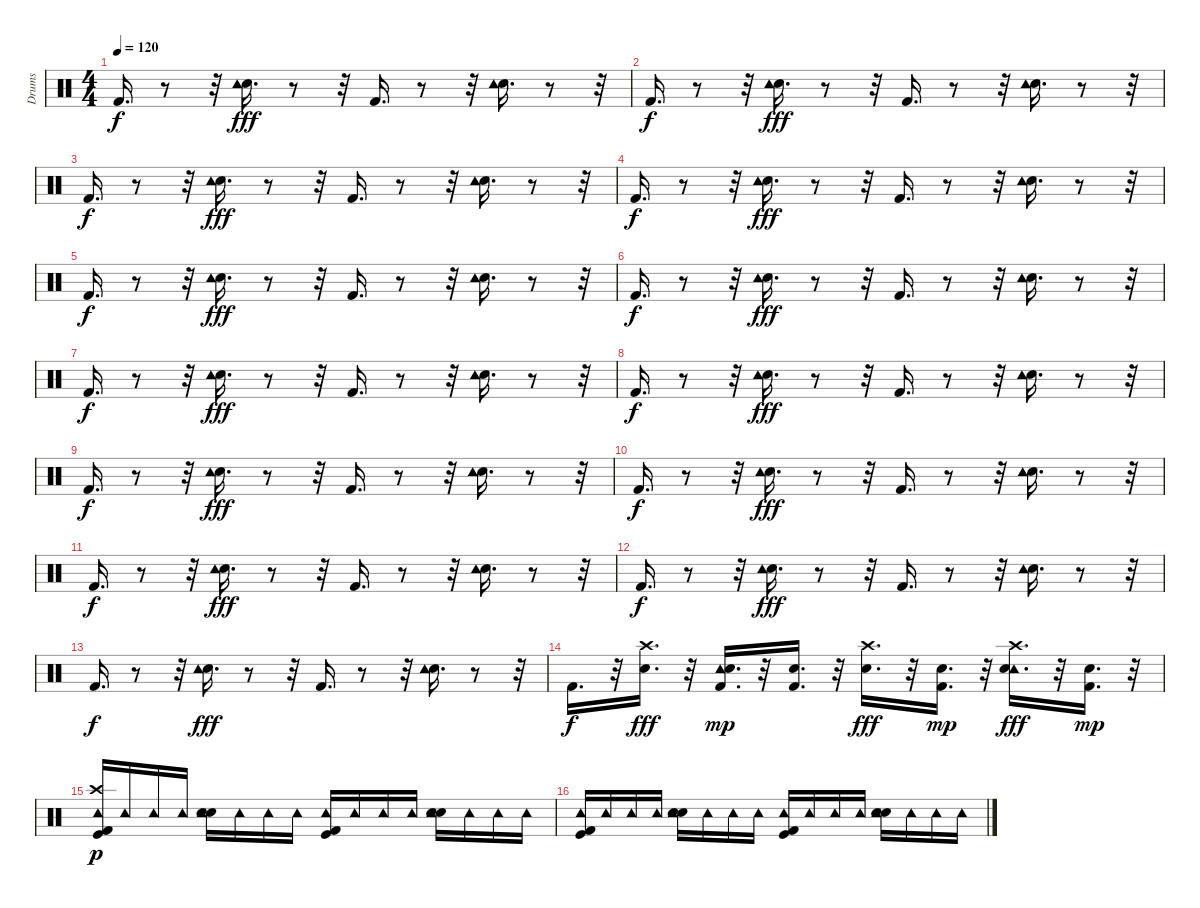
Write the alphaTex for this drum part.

\track ("Drums" "Drums") {instrument percussion}
\staff {score}
\articulation defaults
\ts (4 4)
\tempo 120
\clef neutral
\ks c "Kick (hit) 2".16{d dy f}
r.8 r.32 ("Snare (hit) 2" "Tambourine (hit)").16{d dy fff} r.8 r.32 "Kick (hit) 2".16{d} r.8 r.32 ("Snare (hit) 2" "Tambourine (hit)").16{d} r.8 r.32 |
"Kick (hit) 2".16{d dy f} r.8 r.32 ("Snare (hit) 2" "Tambourine (hit)").16{d dy fff} r.8 r.32 "Kick (hit) 2".16{d} r.8 r.32 ("Snare (hit) 2" "Tambourine (hit)").16{d} r.8 r.32 |
"Kick (hit) 2".16{d dy f} r.8 r.32 ("Snare (hit) 2" "Tambourine (hit)").16{d dy fff} r.8 r.32 "Kick (hit) 2".16{d} r.8 r.32 ("Snare (hit) 2" "Tambourine (hit)").16{d} r.8 r.32 |
"Kick (hit) 2".16{d dy f} r.8 r.32 ("Snare (hit) 2" "Tambourine (hit)").16{d dy fff} r.8 r.32 "Kick (hit) 2".16{d} r.8 r.32 ("Snare (hit) 2" "Tambourine (hit)").16{d} r.8 r.32 |
"Kick (hit) 2".16{d dy f} r.8 r.32 ("Snare (hit) 2" "Tambourine (hit)").16{d dy fff} r.8 r.32 "Kick (hit) 2".16{d} r.8 r.32 ("Snare (hit) 2" "Tambourine (hit)").16{d} r.8 r.32 |
"Kick (hit) 2".16{d dy f} r.8 r.32 ("Snare (hit) 2" "Tambourine (hit)").16{d dy fff} r.8 r.32 "Kick (hit) 2".16{d} r.8 r.32 ("Snare (hit) 2" "Tambourine (hit)").16{d} r.8 r.32 |
"Kick (hit) 2".16{d dy f} r.8 r.32 ("Snare (hit) 2" "Tambourine (hit)").16{d dy fff} r.8 r.32 "Kick (hit) 2".16{d} r.8 r.32 ("Snare (hit) 2" "Tambourine (hit)").16{d} r.8 r.32 |
"Kick (hit) 2".16{d dy f} r.8 r.32 ("Snare (hit) 2" "Tambourine (hit)").16{d dy fff} r.8 r.32 "Kick (hit) 2".16{d} r.8 r.32 ("Snare (hit) 2" "Tambourine (hit)").16{d} r.8 r.32 |
"Kick (hit) 2".16{d dy f} r.8 r.32 ("Snare (hit) 2" "Tambourine (hit)").16{d dy fff} r.8 r.32 "Kick (hit) 2".16{d} r.8 r.32 ("Snare (hit) 2" "Tambourine (hit)").16{d} r.8 r.32 |
"Kick (hit) 2".16{d dy f} r.8 r.32 ("Snare (hit) 2" "Tambourine (hit)").16{d dy fff} r.8 r.32 "Kick (hit) 2".16{d} r.8 r.32 ("Snare (hit) 2" "Tambourine (hit)").16{d} r.8 r.32 |
"Kick (hit) 2".16{d dy f} r.8 r.32 ("Snare (hit) 2" "Tambourine (hit)").16{d dy fff} r.8 r.32 "Kick (hit) 2".16{d} r.8 r.32 ("Snare (hit) 2" "Tambourine (hit)").16{d} r.8 r.32 |
"Kick (hit) 2".16{d dy f} r.8 r.32 ("Snare (hit) 2" "Tambourine (hit)").16{d dy fff} r.8 r.32 "Kick (hit) 2".16{d} r.8 r.32 ("Snare (hit) 2" "Tambourine (hit)").16{d} r.8 r.32 |
"Kick (hit) 2".16{d dy f} r.8 r.32 ("Snare (hit) 2" "Tambourine (hit)").16{d dy fff} r.8 r.32 "Kick (hit) 2".16{d} r.8 r.32 ("Snare (hit) 2" "Tambourine (hit)").16{d} r.8 r.32 |
"Kick (hit) 2".16{d dy f} r.32 ("Crash high (hit)" "Snare (hit) 2").16{d dy fff} r.32 ("Tambourine (hit)" "Kick (hit) 2" "Electric Snare (hit)").16{d dy mp} r.32 ("Kick (hit) 2" "Electric Snare (hit)").16{d} r.32 ("Crash high (hit)" "Snare (hit) 2").16{d dy fff} r.32 ("Kick (hit) 2" "Electric Snare (hit)").16{d dy mp} r.32 ("Tambourine (hit)" "Crash high (hit)" "Snare (hit) 2").16{d dy fff} r.32 ("Kick (hit) 2" "Electric Snare (hit)").16{d dy mp} r.32 |
("Kick (hit) 2" "Tambourine (hit)" "Crash high (hit)" "Kick (hit)").16{dy p} "Tambourine (hit)".16 "Tambourine (hit)".16 "Tambourine (hit)".16 ("Snare (hit) 2" "Tambourine (hit)" "Electric Snare (hit)").16 "Tambourine (hit)".16 "Tambourine (hit)".16 "Tambourine (hit)".16 ("Kick (hit) 2" "Tambourine (hit)" "Kick (hit)").16 "Tambourine (hit)".16 "Tambourine (hit)".16 "Tambourine (hit)".16 ("Snare (hit) 2" "Tambourine (hit)" "Electric Snare (hit)").16 "Tambourine (hit)".16 "Tambourine (hit)".16 "Tambourine (hit)".16 |
("Kick (hit) 2" "Tambourine (hit)" "Kick (hit)").16 "Tambourine (hit)".16 "Tambourine (hit)".16 "Tambourine (hit)".16 ("Snare (hit) 2" "Tambourine (hit)" "Electric Snare (hit)").16 "Tambourine (hit)".16 "Tambourine (hit)".16 "Tambourine (hit)".16 ("Kick (hit) 2" "Tambourine (hit)" "Kick (hit)").16 "Tambourine (hit)".16 "Tambourine (hit)".16 "Tambourine (hit)".16 ("Snare (hit) 2" "Tambourine (hit)" "Electric Snare (hit)").16 "Tambourine (hit)".16 "Tambourine (hit)".16 "Tambourine (hit)".16
